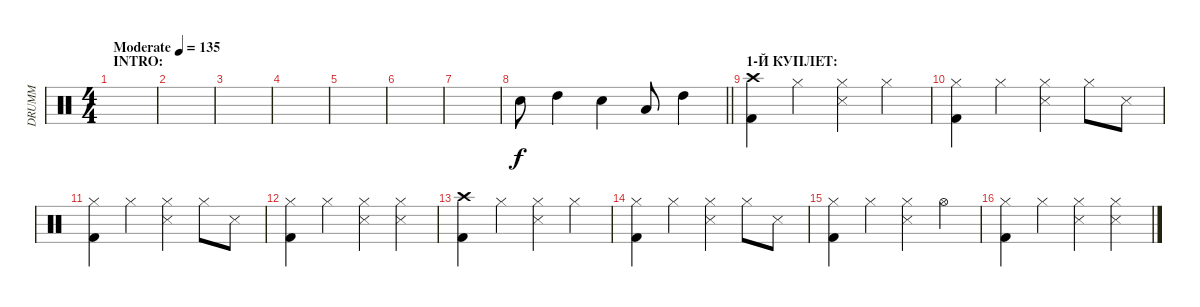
\track ("DRUMM" "DRUMM") {instrument percussion}
\staff {score}
\articulation defaults
\ts (4 4)
\section ("" "INTRO:")
\tempo (135 "Moderate")
\clef neutral
\ks c
|
|
|
|
|
|
|
\barLineRight lightlight "Electric Snare (hit)".8 "High Tom (hit)".4 "Electric Snare (hit)".4 "Low Tom (hit)".8 "High Tom (hit)".4
|
\section ("" "1-Й КУПЛЕТ:")
("Crash high (hit)" "Kick (hit) 2").4 "Hi-Hat (closed)".4 ("Hi-Hat (closed)" "Snare (side stick) 3").4 "Hi-Hat (closed)".4 |
("Hi-Hat (closed)" "Kick (hit) 2").4 "Hi-Hat (closed)".4 ("Hi-Hat (closed)" "Snare (side stick) 3").4 "Hi-Hat (closed)".8 "Snare (side stick) 3".8 |
("Hi-Hat (closed)" "Kick (hit) 2").4 "Hi-Hat (closed)".4 ("Hi-Hat (closed)" "Snare (side stick) 3").4 "Hi-Hat (closed)".8 "Snare (side stick) 3".8 |
("Hi-Hat (closed)" "Kick (hit) 2").4 "Hi-Hat (closed)".4 ("Hi-Hat (closed)" "Snare (side stick) 3").4 ("Hi-Hat (closed)" "Snare (side stick) 3").4 |
("Crash high (hit)" "Kick (hit) 2").4 "Hi-Hat (closed)".4 ("Hi-Hat (closed)" "Snare (side stick) 3").4 "Hi-Hat (closed)".4 |
("Hi-Hat (closed)" "Kick (hit) 2").4 "Hi-Hat (closed)".4 ("Hi-Hat (closed)" "Snare (side stick) 3").4 "Hi-Hat (closed)".8 "Snare (side stick) 3".8 |
("Hi-Hat (closed)" "Kick (hit) 2").4 "Hi-Hat (closed)".4 ("Hi-Hat (closed)" "Snare (side stick) 3").4 "Hi-Hat (open)".4 |
("Hi-Hat (closed)" "Kick (hit) 2").4 "Hi-Hat (closed)".4 ("Hi-Hat (closed)" "Snare (side stick) 3").4 ("Hi-Hat (closed)" "Snare (side stick) 3").4
